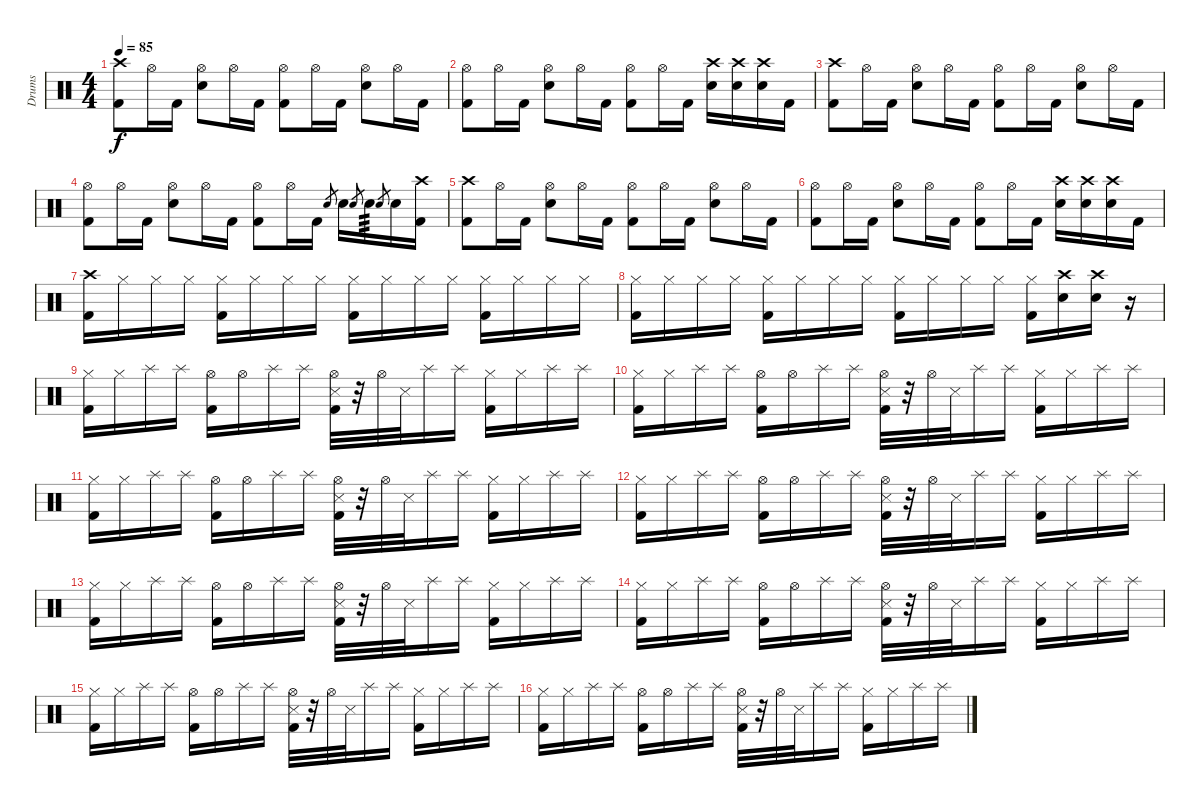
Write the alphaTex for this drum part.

\track ("Drums" "Drums") {instrument percussion}
\staff {score}
\articulation defaults
\ts (4 4)
\tempo 85
\clef neutral
\ks c
("Crash high (hit)" "Kick (hit) 2").8{dy f} "Hi-Hat (open)".16 "Kick (hit) 2".16 ("Hi-Hat (open)" "Electric Snare (hit)").8 "Hi-Hat (open)".16 "Kick (hit) 2".16 ("Hi-Hat (open)" "Kick (hit) 2").8 "Hi-Hat (open)".16 "Kick (hit) 2".16 ("Hi-Hat (open)" "Electric Snare (hit)").8 "Hi-Hat (open)".16 "Kick (hit) 2".16 |
("Hi-Hat (open)" "Kick (hit) 2").8 "Hi-Hat (open)".16 "Kick (hit) 2".16 ("Hi-Hat (open)" "Electric Snare (hit)").8 "Hi-Hat (open)".16 "Kick (hit) 2".16 ("Hi-Hat (open)" "Kick (hit) 2").8 "Hi-Hat (open)".16 "Kick (hit) 2".16 ("Crash high (hit)" "Electric Snare (hit)").16 ("Crash high (hit)" "Electric Snare (hit)").16 ("Crash high (hit)" "Electric Snare (hit)").16 "Kick (hit) 2".16 |
("Crash high (hit)" "Kick (hit) 2").8 "Hi-Hat (open)".16 "Kick (hit) 2".16 ("Hi-Hat (open)" "Electric Snare (hit)").8 "Hi-Hat (open)".16 "Kick (hit) 2".16 ("Hi-Hat (open)" "Kick (hit) 2").8 "Hi-Hat (open)".16 "Kick (hit) 2".16 ("Hi-Hat (open)" "Electric Snare (hit)").8 "Hi-Hat (open)".16 "Kick (hit) 2".16 |
("Hi-Hat (open)" "Kick (hit) 2").8 "Hi-Hat (open)".16 "Kick (hit) 2".16 ("Hi-Hat (open)" "Electric Snare (hit)").8 "Hi-Hat (open)".16 "Kick (hit) 2".16 ("Hi-Hat (open)" "Kick (hit) 2").8 "Hi-Hat (open)".16 "Kick (hit) 2".16 "Electric Snare (hit)".8{gr} "Electric Snare (hit)".16 "Electric Snare (hit)".8{gr} "Electric Snare (hit)".16{tp 3} "Electric Snare (hit)".8{gr} "Electric Snare (hit)".16 ("Crash high (hit)" "Kick (hit) 2").16 |
("Crash high (hit)" "Kick (hit) 2").8 "Hi-Hat (open)".16 "Kick (hit) 2".16 ("Hi-Hat (open)" "Electric Snare (hit)").8 "Hi-Hat (open)".16 "Kick (hit) 2".16 ("Hi-Hat (open)" "Kick (hit) 2").8 "Hi-Hat (open)".16 "Kick (hit) 2".16 ("Hi-Hat (open)" "Electric Snare (hit)").8 "Hi-Hat (open)".16 "Kick (hit) 2".16 |
("Hi-Hat (open)" "Kick (hit) 2").8 "Hi-Hat (open)".16 "Kick (hit) 2".16 ("Hi-Hat (open)" "Electric Snare (hit)").8 "Hi-Hat (open)".16 "Kick (hit) 2".16 ("Hi-Hat (open)" "Kick (hit) 2").8 "Hi-Hat (open)".16 "Kick (hit) 2".16 ("Crash high (hit)" "Electric Snare (hit)").16 ("Crash high (hit)" "Electric Snare (hit)").16 ("Crash high (hit)" "Electric Snare (hit)").16 "Kick (hit) 2".16 |
("Crash high (hit)" "Kick (hit) 2").16 "Hi-Hat (closed)".16 "Hi-Hat (closed)".16 "Hi-Hat (closed)".16 ("Hi-Hat (closed)" "Kick (hit) 2").16 "Hi-Hat (closed)".16 "Hi-Hat (closed)".16 "Hi-Hat (closed)".16 ("Hi-Hat (closed)" "Kick (hit) 2").16 "Hi-Hat (closed)".16 "Hi-Hat (closed)".16 "Hi-Hat (closed)".16 ("Hi-Hat (closed)" "Kick (hit) 2").16 "Hi-Hat (closed)".16 "Hi-Hat (closed)".16 "Hi-Hat (closed)".16 |
("Hi-Hat (closed)" "Kick (hit) 2").16 "Hi-Hat (closed)".16 "Hi-Hat (closed)".16 "Hi-Hat (closed)".16 ("Hi-Hat (closed)" "Kick (hit) 2").16 "Hi-Hat (closed)".16 "Hi-Hat (closed)".16 "Hi-Hat (closed)".16 ("Hi-Hat (closed)" "Kick (hit) 2").16 "Hi-Hat (closed)".16 "Hi-Hat (closed)".16 "Hi-Hat (closed)".16 ("Hi-Hat (closed)" "Kick (hit) 2").16 ("Crash high (hit)" "Electric Snare (hit)").16 ("Crash high (hit)" "Electric Snare (hit)").16 r.16 |
("Hi-Hat (closed)" "Kick (hit) 2").16 "Hi-Hat (closed)".16 "Splash (hit)".16 "Splash (hit)".16 ("Hi-Hat (open)" "Kick (hit) 2").16 "Hi-Hat (open)".16 "Splash (hit)".16 "Splash (hit)".16 ("Hi-Hat (open)" "Snare (side stick) 3" "Kick (hit) 2").32 r.32 "Hi-Hat (open)".32 "Snare (side stick) 3".32 "Splash (hit)".16 "Splash (hit)".16 ("Hi-Hat (closed)" "Kick (hit) 2").16 "Hi-Hat (closed)".16 "Splash (hit)".16 "Splash (hit)".16 |
("Hi-Hat (closed)" "Kick (hit) 2").16 "Hi-Hat (closed)".16 "Splash (hit)".16 "Splash (hit)".16 ("Hi-Hat (open)" "Kick (hit) 2").16 "Hi-Hat (open)".16 "Splash (hit)".16 "Splash (hit)".16 ("Hi-Hat (open)" "Snare (side stick) 3" "Kick (hit) 2").32 r.32 "Hi-Hat (open)".32 "Snare (side stick) 3".32 "Splash (hit)".16 "Splash (hit)".16 ("Hi-Hat (closed)" "Kick (hit) 2").16 "Hi-Hat (closed)".16 "Splash (hit)".16 "Splash (hit)".16 |
("Hi-Hat (closed)" "Kick (hit) 2").16 "Hi-Hat (closed)".16 "Splash (hit)".16 "Splash (hit)".16 ("Hi-Hat (open)" "Kick (hit) 2").16 "Hi-Hat (open)".16 "Splash (hit)".16 "Splash (hit)".16 ("Hi-Hat (open)" "Snare (side stick) 3" "Kick (hit) 2").32 r.32 "Hi-Hat (open)".32 "Snare (side stick) 3".32 "Splash (hit)".16 "Splash (hit)".16 ("Hi-Hat (closed)" "Kick (hit) 2").16 "Hi-Hat (closed)".16 "Splash (hit)".16 "Splash (hit)".16 |
("Hi-Hat (closed)" "Kick (hit) 2").16 "Hi-Hat (closed)".16 "Splash (hit)".16 "Splash (hit)".16 ("Hi-Hat (open)" "Kick (hit) 2").16 "Hi-Hat (open)".16 "Splash (hit)".16 "Splash (hit)".16 ("Hi-Hat (open)" "Snare (side stick) 3" "Kick (hit) 2").32 r.32 "Hi-Hat (open)".32 "Snare (side stick) 3".32 "Splash (hit)".16 "Splash (hit)".16 ("Hi-Hat (closed)" "Kick (hit) 2").16 "Hi-Hat (closed)".16 "Splash (hit)".16 "Splash (hit)".16 |
("Hi-Hat (closed)" "Kick (hit) 2").16 "Hi-Hat (closed)".16 "Splash (hit)".16 "Splash (hit)".16 ("Hi-Hat (open)" "Kick (hit) 2").16 "Hi-Hat (open)".16 "Splash (hit)".16 "Splash (hit)".16 ("Hi-Hat (open)" "Snare (side stick) 3" "Kick (hit) 2").32 r.32 "Hi-Hat (open)".32 "Snare (side stick) 3".32 "Splash (hit)".16 "Splash (hit)".16 ("Hi-Hat (closed)" "Kick (hit) 2").16 "Hi-Hat (closed)".16 "Splash (hit)".16 "Splash (hit)".16 |
("Hi-Hat (closed)" "Kick (hit) 2").16 "Hi-Hat (closed)".16 "Splash (hit)".16 "Splash (hit)".16 ("Hi-Hat (open)" "Kick (hit) 2").16 "Hi-Hat (open)".16 "Splash (hit)".16 "Splash (hit)".16 ("Hi-Hat (open)" "Snare (side stick) 3" "Kick (hit) 2").32 r.32 "Hi-Hat (open)".32 "Snare (side stick) 3".32 "Splash (hit)".16 "Splash (hit)".16 ("Hi-Hat (closed)" "Kick (hit) 2").16 "Hi-Hat (closed)".16 "Splash (hit)".16 "Splash (hit)".16 |
("Hi-Hat (closed)" "Kick (hit) 2").16 "Hi-Hat (closed)".16 "Splash (hit)".16 "Splash (hit)".16 ("Hi-Hat (open)" "Kick (hit) 2").16 "Hi-Hat (open)".16 "Splash (hit)".16 "Splash (hit)".16 ("Hi-Hat (open)" "Snare (side stick) 3" "Kick (hit) 2").32 r.32 "Hi-Hat (open)".32 "Snare (side stick) 3".32 "Splash (hit)".16 "Splash (hit)".16 ("Hi-Hat (closed)" "Kick (hit) 2").16 "Hi-Hat (closed)".16 "Splash (hit)".16 "Splash (hit)".16 |
("Hi-Hat (closed)" "Kick (hit) 2").16 "Hi-Hat (closed)".16 "Splash (hit)".16 "Splash (hit)".16 ("Hi-Hat (open)" "Kick (hit) 2").16 "Hi-Hat (open)".16 "Splash (hit)".16 "Splash (hit)".16 ("Hi-Hat (open)" "Snare (side stick) 3" "Kick (hit) 2").32 r.32 "Hi-Hat (open)".32 "Snare (side stick) 3".32 "Splash (hit)".16 "Splash (hit)".16 ("Hi-Hat (closed)" "Kick (hit) 2").16 "Hi-Hat (closed)".16 "Splash (hit)".16 "Splash (hit)".16
